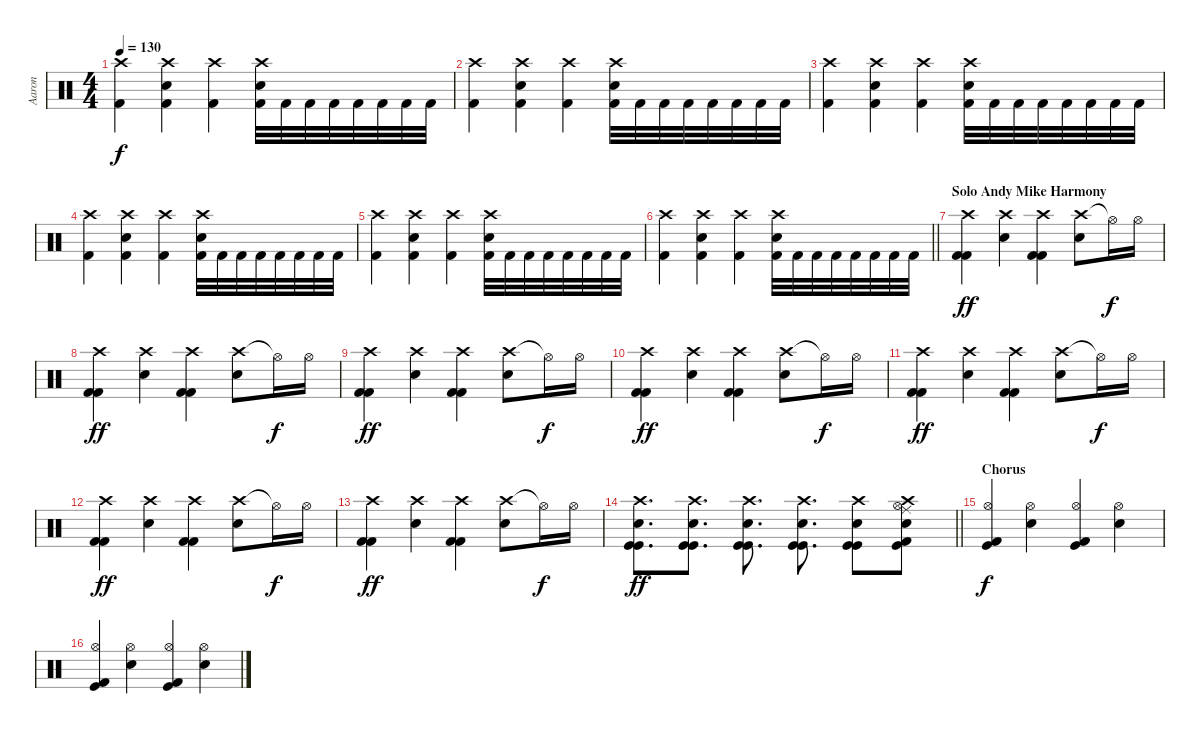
\track ("Aaron" "Aaron") {instrument percussion}
\staff {score}
\articulation defaults
\ts (4 4)
\tempo 130
\clef neutral
\ks c
("Crash high (hit)" "Kick (hit) 2").4{dy f} ("Crash high (hit)" "Snare (hit) 2" "Kick (hit) 2").4 ("Crash high (hit)" "Kick (hit) 2").4 ("Crash high (hit)" "Snare (hit) 2" "Kick (hit) 2").32 "Kick (hit) 2".32 "Kick (hit) 2".32 "Kick (hit) 2".32 "Kick (hit) 2".32 "Kick (hit) 2".32 "Kick (hit) 2".32 "Kick (hit) 2".32 |
("Crash high (hit)" "Kick (hit) 2").4 ("Crash high (hit)" "Snare (hit) 2" "Kick (hit) 2").4 ("Crash high (hit)" "Kick (hit) 2").4 ("Crash high (hit)" "Snare (hit) 2" "Kick (hit) 2").32 "Kick (hit) 2".32 "Kick (hit) 2".32 "Kick (hit) 2".32 "Kick (hit) 2".32 "Kick (hit) 2".32 "Kick (hit) 2".32 "Kick (hit) 2".32 |
("Crash high (hit)" "Kick (hit) 2").4 ("Crash high (hit)" "Snare (hit) 2" "Kick (hit) 2").4 ("Crash high (hit)" "Kick (hit) 2").4 ("Crash high (hit)" "Snare (hit) 2" "Kick (hit) 2").32 "Kick (hit) 2".32 "Kick (hit) 2".32 "Kick (hit) 2".32 "Kick (hit) 2".32 "Kick (hit) 2".32 "Kick (hit) 2".32 "Kick (hit) 2".32 |
("Crash high (hit)" "Kick (hit) 2").4 ("Crash high (hit)" "Snare (hit) 2" "Kick (hit) 2").4 ("Crash high (hit)" "Kick (hit) 2").4 ("Crash high (hit)" "Snare (hit) 2" "Kick (hit) 2").32 "Kick (hit) 2".32 "Kick (hit) 2".32 "Kick (hit) 2".32 "Kick (hit) 2".32 "Kick (hit) 2".32 "Kick (hit) 2".32 "Kick (hit) 2".32 |
("Crash high (hit)" "Kick (hit) 2").4 ("Crash high (hit)" "Snare (hit) 2" "Kick (hit) 2").4 ("Crash high (hit)" "Kick (hit) 2").4 ("Crash high (hit)" "Snare (hit) 2" "Kick (hit) 2").32 "Kick (hit) 2".32 "Kick (hit) 2".32 "Kick (hit) 2".32 "Kick (hit) 2".32 "Kick (hit) 2".32 "Kick (hit) 2".32 "Kick (hit) 2".32 |
\barLineRight lightlight
("Crash high (hit)" "Kick (hit) 2").4 ("Crash high (hit)" "Snare (hit) 2" "Kick (hit) 2").4 ("Crash high (hit)" "Kick (hit) 2").4 ("Crash high (hit)" "Snare (hit) 2" "Kick (hit) 2").32 "Kick (hit) 2".32 "Kick (hit) 2".32 "Kick (hit) 2".32 "Kick (hit) 2".32 "Kick (hit) 2".32 "Kick (hit) 2".32 "Kick (hit) 2".32 |
\section ("" "Solo Andy Mike Harmony")
("Crash high (hit)" "Kick (hit) 2" "Kick (hit) 2").4{dy ff} ("Crash high (hit)" "Snare (hit) 2").4 ("Crash high (hit)" "Kick (hit) 2" "Kick (hit) 2").4 ("Crash high (hit)" "Snare (hit) 2").8 "Hi-Hat (open)"{t}.16{dy f} "Hi-Hat (open)".16 |
("Crash high (hit)" "Kick (hit) 2" "Kick (hit) 2").4{dy ff} ("Crash high (hit)" "Snare (hit) 2").4 ("Crash high (hit)" "Kick (hit) 2" "Kick (hit) 2").4 ("Crash high (hit)" "Snare (hit) 2").8 "Hi-Hat (open)"{t}.16{dy f} "Hi-Hat (open)".16 |
("Crash high (hit)" "Kick (hit) 2" "Kick (hit) 2").4{dy ff} ("Crash high (hit)" "Snare (hit) 2").4 ("Crash high (hit)" "Kick (hit) 2" "Kick (hit) 2").4 ("Crash high (hit)" "Snare (hit) 2").8 "Hi-Hat (open)"{t}.16{dy f} "Hi-Hat (open)".16 |
("Crash high (hit)" "Kick (hit) 2" "Kick (hit) 2").4{dy ff} ("Crash high (hit)" "Snare (hit) 2").4 ("Crash high (hit)" "Kick (hit) 2" "Kick (hit) 2").4 ("Crash high (hit)" "Snare (hit) 2").8 "Hi-Hat (open)"{t}.16{dy f} "Hi-Hat (open)".16 |
("Crash high (hit)" "Kick (hit) 2" "Kick (hit) 2").4{dy ff} ("Crash high (hit)" "Snare (hit) 2").4 ("Crash high (hit)" "Kick (hit) 2" "Kick (hit) 2").4 ("Crash high (hit)" "Snare (hit) 2").8 "Hi-Hat (open)"{t}.16{dy f} "Hi-Hat (open)".16 |
("Crash high (hit)" "Kick (hit) 2" "Kick (hit) 2").4{dy ff} ("Crash high (hit)" "Snare (hit) 2").4 ("Crash high (hit)" "Kick (hit) 2" "Kick (hit) 2").4 ("Crash high (hit)" "Snare (hit) 2").8 "Hi-Hat (open)"{t}.16{dy f} "Hi-Hat (open)".16 |
("Crash high (hit)" "Kick (hit) 2" "Kick (hit) 2").4{dy ff} ("Crash high (hit)" "Snare (hit) 2").4 ("Crash high (hit)" "Kick (hit) 2" "Kick (hit) 2").4 ("Crash high (hit)" "Snare (hit) 2").8 "Hi-Hat (open)"{t}.16{dy f} "Hi-Hat (open)".16 |
\barLineRight lightlight
("Snare (hit) 2" "Crash high (hit)" "Kick (hit)" "Kick (hit)").8{d dy ff} ("Snare (hit) 2" "Crash high (hit)" "Kick (hit)" "Kick (hit)").8{d} ("Snare (hit) 2" "Crash high (hit)" "Kick (hit)" "Kick (hit)").8{d} ("Snare (hit) 2" "Crash high (hit)" "Kick (hit)" "Kick (hit)").8{d} ("Snare (hit) 2" "Crash high (hit)" "Kick (hit)" "Kick (hit)").8 ("Snare (hit) 2" "Ride (middle)" "Hi-Hat (open)" "Crash high (hit)" "Kick (hit) 2" "Kick (hit)").8 |
\section ("" "Chorus")
("Hi-Hat (open)" "Kick (hit)" "Kick (hit) 2").4{dy f} ("Hi-Hat (open)" "Snare (hit) 2").4 ("Hi-Hat (open)" "Kick (hit) 2" "Kick (hit)").4 ("Hi-Hat (open)" "Snare (hit) 2").4 |
("Hi-Hat (open)" "Kick (hit)" "Kick (hit) 2").4 ("Hi-Hat (open)" "Snare (hit) 2").4 ("Hi-Hat (open)" "Kick (hit) 2" "Kick (hit)").4 ("Hi-Hat (open)" "Snare (hit) 2").4
